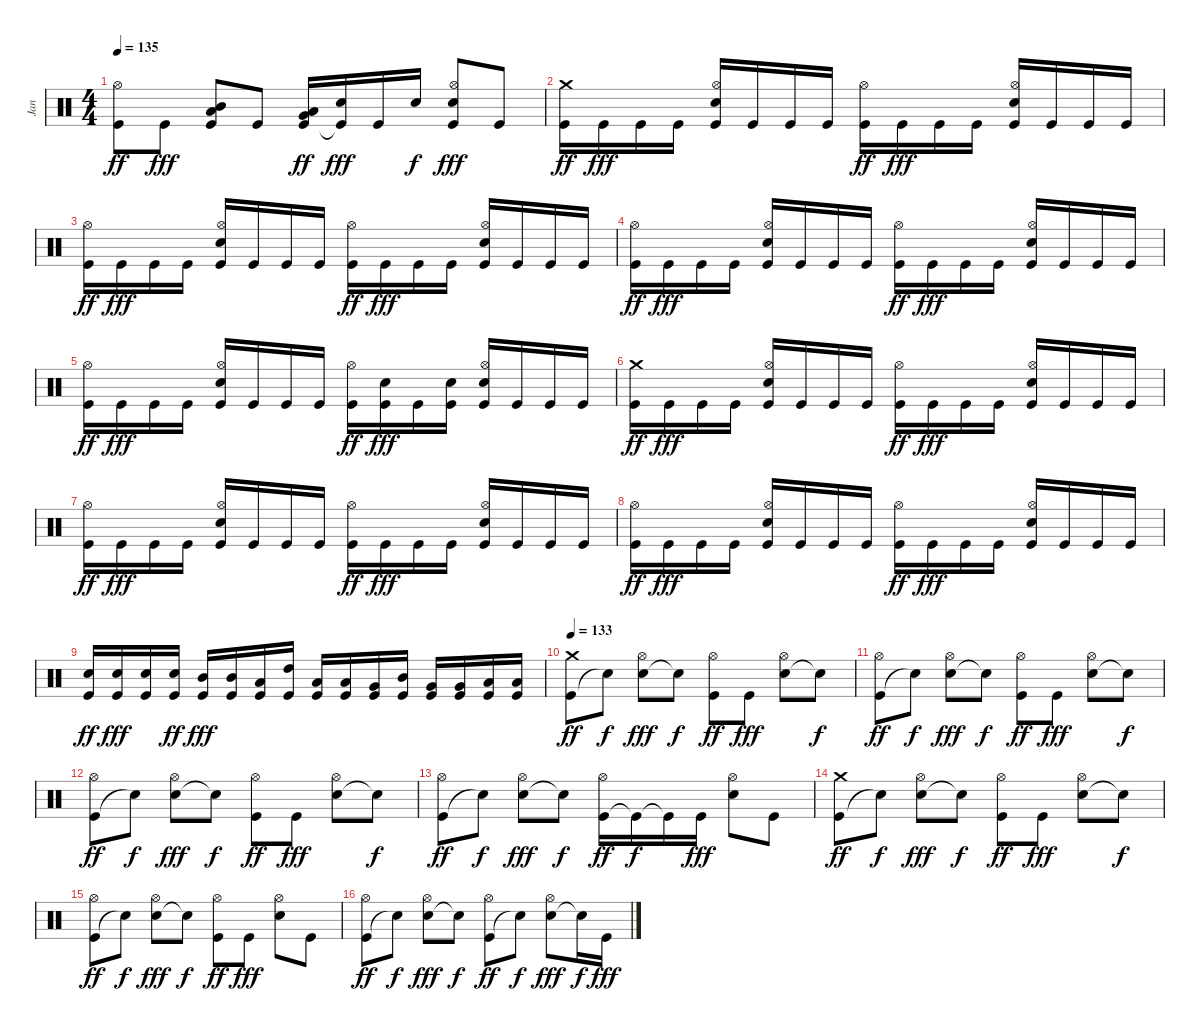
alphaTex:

\track ("Jan" "Jan") {instrument percussion}
\staff {score}
\articulation defaults
\ts (4 4)
\tempo 135
\clef neutral
\ks c
("Kick (hit)" "Hi-Hat (open)").8{dy ff} "Kick (hit)".8{dy fff} ("Kick (hit)" "Mid Tom (hit)" "Low Tom (hit)").8 "Kick (hit)".8 ("Kick (hit)" "Low Tom (hit)" "Very Low Tom (hit)").16{dy ff} ("Kick (hit)"{t} "Snare (hit) 2").16{dy fff} "Kick (hit)".16 "Snare (hit) 2".16{dy f} ("Kick (hit)" "Snare (hit) 2" "Hi-Hat (open)").8{dy fff} "Kick (hit)".8 |
("Kick (hit)" "Crash medium (hit)").16{dy ff} "Kick (hit)".16{dy fff} "Kick (hit)".16 "Kick (hit)".16 ("Kick (hit)" "Snare (hit) 2" "Hi-Hat (open)").16 "Kick (hit)".16 "Kick (hit)".16 "Kick (hit)".16 ("Kick (hit)" "Hi-Hat (open)").16{dy ff} "Kick (hit)".16{dy fff} "Kick (hit)".16 "Kick (hit)".16 ("Kick (hit)" "Snare (hit) 2" "Hi-Hat (open)").16 "Kick (hit)".16 "Kick (hit)".16 "Kick (hit)".16 |
("Kick (hit)" "Hi-Hat (open)").16{dy ff} "Kick (hit)".16{dy fff} "Kick (hit)".16 "Kick (hit)".16 ("Kick (hit)" "Snare (hit) 2" "Hi-Hat (open)").16 "Kick (hit)".16 "Kick (hit)".16 "Kick (hit)".16 ("Kick (hit)" "Hi-Hat (open)").16{dy ff} "Kick (hit)".16{dy fff} "Kick (hit)".16 "Kick (hit)".16 ("Kick (hit)" "Snare (hit) 2" "Hi-Hat (open)").16 "Kick (hit)".16 "Kick (hit)".16 "Kick (hit)".16 |
("Kick (hit)" "Hi-Hat (open)").16{dy ff} "Kick (hit)".16{dy fff} "Kick (hit)".16 "Kick (hit)".16 ("Kick (hit)" "Snare (hit) 2" "Hi-Hat (open)").16 "Kick (hit)".16 "Kick (hit)".16 "Kick (hit)".16 ("Kick (hit)" "Hi-Hat (open)").16{dy ff} "Kick (hit)".16{dy fff} "Kick (hit)".16 "Kick (hit)".16 ("Kick (hit)" "Snare (hit) 2" "Hi-Hat (open)").16 "Kick (hit)".16 "Kick (hit)".16 "Kick (hit)".16 |
("Kick (hit)" "Hi-Hat (open)").16{dy ff} "Kick (hit)".16{dy fff} "Kick (hit)".16 "Kick (hit)".16 ("Kick (hit)" "Snare (hit) 2" "Hi-Hat (open)").16 "Kick (hit)".16 "Kick (hit)".16 "Kick (hit)".16 ("Kick (hit)" "Hi-Hat (open)").16{dy ff} ("Kick (hit)" "Snare (hit) 2").16{dy fff} "Kick (hit)".16 ("Kick (hit)" "Snare (hit) 2").16 ("Kick (hit)" "Snare (hit) 2" "Hi-Hat (open)").16 "Kick (hit)".16 "Kick (hit)".16 "Kick (hit)".16 |
("Kick (hit)" "Crash medium (hit)").16{dy ff} "Kick (hit)".16{dy fff} "Kick (hit)".16 "Kick (hit)".16 ("Kick (hit)" "Snare (hit) 2" "Hi-Hat (open)").16 "Kick (hit)".16 "Kick (hit)".16 "Kick (hit)".16 ("Kick (hit)" "Hi-Hat (open)").16{dy ff} "Kick (hit)".16{dy fff} "Kick (hit)".16 "Kick (hit)".16 ("Kick (hit)" "Snare (hit) 2" "Hi-Hat (open)").16 "Kick (hit)".16 "Kick (hit)".16 "Kick (hit)".16 |
("Kick (hit)" "Hi-Hat (open)").16{dy ff} "Kick (hit)".16{dy fff} "Kick (hit)".16 "Kick (hit)".16 ("Kick (hit)" "Snare (hit) 2" "Hi-Hat (open)").16 "Kick (hit)".16 "Kick (hit)".16 "Kick (hit)".16 ("Kick (hit)" "Hi-Hat (open)").16{dy ff} "Kick (hit)".16{dy fff} "Kick (hit)".16 "Kick (hit)".16 ("Kick (hit)" "Snare (hit) 2" "Hi-Hat (open)").16 "Kick (hit)".16 "Kick (hit)".16 "Kick (hit)".16 |
("Kick (hit)" "Hi-Hat (open)").16{dy ff} "Kick (hit)".16{dy fff} "Kick (hit)".16 "Kick (hit)".16 ("Kick (hit)" "Snare (hit) 2" "Hi-Hat (open)").16 "Kick (hit)".16 "Kick (hit)".16 "Kick (hit)".16 ("Kick (hit)" "Hi-Hat (open)").16{dy ff} "Kick (hit)".16{dy fff} "Kick (hit)".16 "Kick (hit)".16 ("Kick (hit)" "Snare (hit) 2" "Hi-Hat (open)").16 "Kick (hit)".16 "Kick (hit)".16 "Kick (hit)".16 |
("Kick (hit)" "Snare (hit) 2").16{dy ff} ("Kick (hit)" "Snare (hit) 2").16{dy fff} ("Kick (hit)" "Snare (hit) 2").16 ("Kick (hit)" "Snare (hit) 2").16{dy ff} ("Kick (hit)" "Mid Tom (hit)").16{dy fff} ("Kick (hit)" "Mid Tom (hit)").16 ("Kick (hit)" "Low Tom (hit)").16 ("Kick (hit)" "High Tom (hit)").16 ("Kick (hit)" "Low Tom (hit)").16 ("Kick (hit)" "Low Tom (hit)").16 ("Kick (hit)" "Very Low Tom (hit)").16 ("Kick (hit)" "Mid Tom (hit)").16 ("Kick (hit)" "Very Low Tom (hit)").16 ("Kick (hit)" "Very Low Tom (hit)").16 ("Kick (hit)" "Low Floor Tom (hit)").16 ("Kick (hit)" "Low Tom (hit)").16 |
\tempo 133
("Kick (hit)" "Crash medium (hit)").8{dy ff} "Snare (hit)"{t}.8{dy f} ("Snare (hit) 2" "Hi-Hat (open)").8{dy fff} "Snare (hit)"{t}.8{dy f} ("Kick (hit)" "Hi-Hat (open)").8{dy ff} "Kick (hit)".8{dy fff} ("Snare (hit) 2" "Hi-Hat (open)").8 "Snare (hit)"{t}.8{dy f} |
("Kick (hit)" "Hi-Hat (open)").8{dy ff} "Snare (hit)"{t}.8{dy f} ("Snare (hit) 2" "Hi-Hat (open)").8{dy fff} "Snare (hit)"{t}.8{dy f} ("Kick (hit)" "Hi-Hat (open)").8{dy ff} "Kick (hit)".8{dy fff} ("Snare (hit) 2" "Hi-Hat (open)").8 "Snare (hit)"{t}.8{dy f} |
("Kick (hit)" "Hi-Hat (open)").8{dy ff} "Snare (hit)"{t}.8{dy f} ("Snare (hit) 2" "Hi-Hat (open)").8{dy fff} "Snare (hit)"{t}.8{dy f} ("Kick (hit)" "Hi-Hat (open)").8{dy ff} "Kick (hit)".8{dy fff} ("Snare (hit) 2" "Hi-Hat (open)").8 "Snare (hit)"{t}.8{dy f} |
("Kick (hit)" "Hi-Hat (open)").8{dy ff} "Snare (hit)"{t}.8{dy f} ("Snare (hit) 2" "Hi-Hat (open)").8{dy fff} "Snare (hit)"{t}.8{dy f} ("Kick (hit)" "Hi-Hat (open)").16{dy ff} "Kick (hit)"{t}.16{dy f} "Kick (hit)"{t}.16 "Kick (hit)".16{dy fff} ("Snare (hit) 2" "Hi-Hat (open)").8 "Kick (hit)".8 |
("Kick (hit)" "Crash medium (hit)").8{dy ff} "Snare (hit)"{t}.8{dy f} ("Snare (hit) 2" "Hi-Hat (open)").8{dy fff} "Snare (hit)"{t}.8{dy f} ("Kick (hit)" "Hi-Hat (open)").8{dy ff} "Kick (hit)".8{dy fff} ("Snare (hit) 2" "Hi-Hat (open)").8 "Snare (hit)"{t}.8{dy f} |
("Kick (hit)" "Hi-Hat (open)").8{dy ff} "Snare (hit)"{t}.8{dy f} ("Snare (hit) 2" "Hi-Hat (open)").8{dy fff} "Snare (hit)"{t}.8{dy f} ("Kick (hit)" "Hi-Hat (open)").8{dy ff} "Kick (hit)".8{dy fff} ("Snare (hit) 2" "Hi-Hat (open)").8 "Kick (hit)".8 |
("Kick (hit)" "Hi-Hat (open)").8{dy ff} "Snare (hit)"{t}.8{dy f} ("Snare (hit) 2" "Hi-Hat (open)").8{dy fff} "Snare (hit)"{t}.8{dy f} ("Kick (hit)" "Hi-Hat (open)").8{dy ff} "Snare (hit)"{t}.8{dy f} ("Snare (hit) 2" "Hi-Hat (open)").8{dy fff} "Snare (hit)"{t}.16{dy f} "Kick (hit)".16{dy fff}
